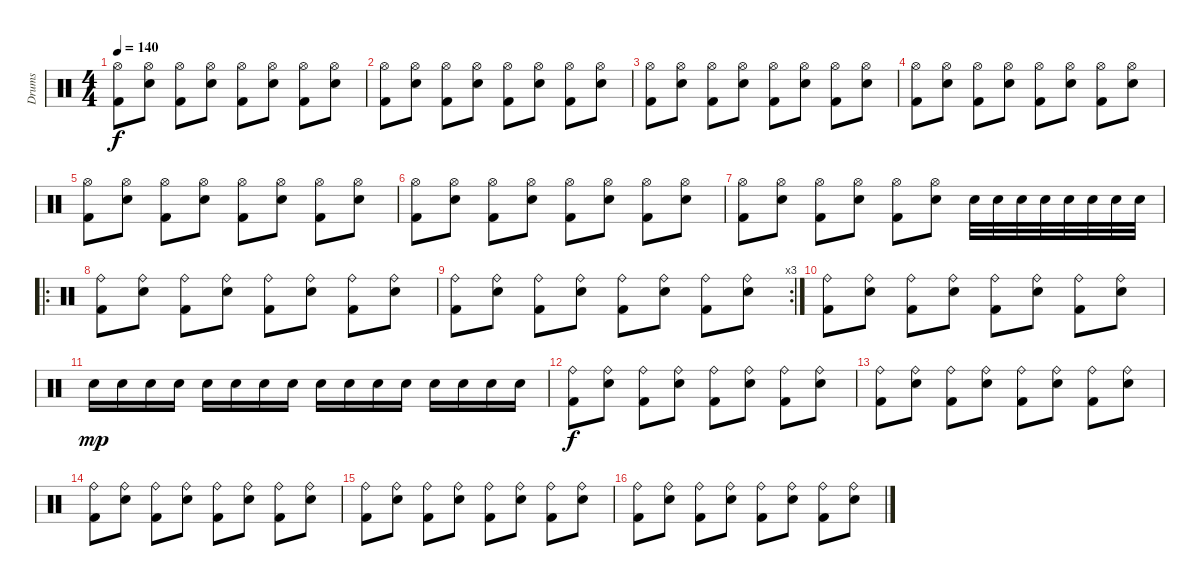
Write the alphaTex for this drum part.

\track ("Drums" "Drums") {instrument percussion}
\staff {score}
\articulation defaults
\ts (4 4)
\tempo 140
\clef neutral
\ks c
("Hi-Hat (open)" "Kick (hit) 2").8{dy f} ("Hi-Hat (open)" "Electric Snare (hit)").8 ("Hi-Hat (open)" "Kick (hit) 2").8 ("Hi-Hat (open)" "Electric Snare (hit)").8 ("Hi-Hat (open)" "Kick (hit) 2").8 ("Hi-Hat (open)" "Electric Snare (hit)").8 ("Hi-Hat (open)" "Kick (hit) 2").8 ("Hi-Hat (open)" "Electric Snare (hit)").8 |
("Hi-Hat (open)" "Kick (hit) 2").8 ("Hi-Hat (open)" "Electric Snare (hit)").8 ("Hi-Hat (open)" "Kick (hit) 2").8 ("Hi-Hat (open)" "Electric Snare (hit)").8 ("Hi-Hat (open)" "Kick (hit) 2").8 ("Hi-Hat (open)" "Electric Snare (hit)").8 ("Hi-Hat (open)" "Kick (hit) 2").8 ("Hi-Hat (open)" "Electric Snare (hit)").8 |
("Hi-Hat (open)" "Kick (hit) 2").8 ("Hi-Hat (open)" "Electric Snare (hit)").8 ("Hi-Hat (open)" "Kick (hit) 2").8 ("Hi-Hat (open)" "Electric Snare (hit)").8 ("Hi-Hat (open)" "Kick (hit) 2").8 ("Hi-Hat (open)" "Electric Snare (hit)").8 ("Hi-Hat (open)" "Kick (hit) 2").8 ("Hi-Hat (open)" "Electric Snare (hit)").8 |
("Hi-Hat (open)" "Kick (hit) 2").8 ("Hi-Hat (open)" "Electric Snare (hit)").8 ("Hi-Hat (open)" "Kick (hit) 2").8 ("Hi-Hat (open)" "Electric Snare (hit)").8 ("Hi-Hat (open)" "Kick (hit) 2").8 ("Hi-Hat (open)" "Electric Snare (hit)").8 ("Hi-Hat (open)" "Kick (hit) 2").8 ("Hi-Hat (open)" "Electric Snare (hit)").8 |
("Hi-Hat (open)" "Kick (hit) 2").8 ("Hi-Hat (open)" "Electric Snare (hit)").8 ("Hi-Hat (open)" "Kick (hit) 2").8 ("Hi-Hat (open)" "Electric Snare (hit)").8 ("Hi-Hat (open)" "Kick (hit) 2").8 ("Hi-Hat (open)" "Electric Snare (hit)").8 ("Hi-Hat (open)" "Kick (hit) 2").8 ("Hi-Hat (open)" "Electric Snare (hit)").8 |
("Hi-Hat (open)" "Kick (hit) 2").8 ("Hi-Hat (open)" "Electric Snare (hit)").8 ("Hi-Hat (open)" "Kick (hit) 2").8 ("Hi-Hat (open)" "Electric Snare (hit)").8 ("Hi-Hat (open)" "Kick (hit) 2").8 ("Hi-Hat (open)" "Electric Snare (hit)").8 ("Hi-Hat (open)" "Kick (hit) 2").8 ("Hi-Hat (open)" "Electric Snare (hit)").8 |
("Hi-Hat (open)" "Kick (hit) 2").8 ("Hi-Hat (open)" "Electric Snare (hit)").8 ("Hi-Hat (open)" "Kick (hit) 2").8 ("Hi-Hat (open)" "Electric Snare (hit)").8 ("Hi-Hat (open)" "Kick (hit) 2").8 ("Hi-Hat (open)" "Electric Snare (hit)").8 "Electric Snare (hit)".32 "Electric Snare (hit)".32 "Electric Snare (hit)".32 "Electric Snare (hit)".32 "Electric Snare (hit)".32 "Electric Snare (hit)".32 "Electric Snare (hit)".32 "Electric Snare (hit)".32 |
\ro
("Ride (bell)" "Kick (hit) 2").8 ("Ride (bell)" "Electric Snare (hit)").8 ("Ride (bell)" "Kick (hit) 2").8 ("Ride (bell)" "Electric Snare (hit)").8 ("Ride (bell)" "Kick (hit) 2").8 ("Ride (bell)" "Electric Snare (hit)").8 ("Ride (bell)" "Kick (hit) 2").8 ("Ride (bell)" "Electric Snare (hit)").8 |
\rc 3
("Ride (bell)" "Kick (hit) 2").8 ("Ride (bell)" "Electric Snare (hit)").8 ("Ride (bell)" "Kick (hit) 2").8 ("Ride (bell)" "Electric Snare (hit)").8 ("Ride (bell)" "Kick (hit) 2").8 ("Ride (bell)" "Electric Snare (hit)").8 ("Ride (bell)" "Kick (hit) 2").8 ("Ride (bell)" "Electric Snare (hit)").8 |
("Ride (bell)" "Kick (hit) 2").8 ("Ride (bell)" "Electric Snare (hit)").8 ("Ride (bell)" "Kick (hit) 2").8 ("Ride (bell)" "Electric Snare (hit)").8 ("Ride (bell)" "Kick (hit) 2").8 ("Ride (bell)" "Electric Snare (hit)").8 ("Ride (bell)" "Kick (hit) 2").8 ("Ride (bell)" "Electric Snare (hit)").8 |
"Electric Snare (hit)".16{dy mp} "Electric Snare (hit)".16 "Electric Snare (hit)".16 "Electric Snare (hit)".16 "Electric Snare (hit)".16 "Electric Snare (hit)".16 "Electric Snare (hit)".16 "Electric Snare (hit)".16 "Electric Snare (hit)".16 "Electric Snare (hit)".16 "Electric Snare (hit)".16 "Electric Snare (hit)".16 "Electric Snare (hit)".16 "Electric Snare (hit)".16 "Electric Snare (hit)".16 "Electric Snare (hit)".16 |
("Ride (bell)" "Kick (hit) 2").8{dy f} ("Ride (bell)" "Electric Snare (hit)").8 ("Ride (bell)" "Kick (hit) 2").8 ("Ride (bell)" "Electric Snare (hit)").8 ("Ride (bell)" "Kick (hit) 2").8 ("Ride (bell)" "Electric Snare (hit)").8 ("Ride (bell)" "Kick (hit) 2").8 ("Ride (bell)" "Electric Snare (hit)").8 |
("Ride (bell)" "Kick (hit) 2").8 ("Ride (bell)" "Electric Snare (hit)").8 ("Ride (bell)" "Kick (hit) 2").8 ("Ride (bell)" "Electric Snare (hit)").8 ("Ride (bell)" "Kick (hit) 2").8 ("Ride (bell)" "Electric Snare (hit)").8 ("Ride (bell)" "Kick (hit) 2").8 ("Ride (bell)" "Electric Snare (hit)").8 |
("Ride (bell)" "Kick (hit) 2").8 ("Ride (bell)" "Electric Snare (hit)").8 ("Ride (bell)" "Kick (hit) 2").8 ("Ride (bell)" "Electric Snare (hit)").8 ("Ride (bell)" "Kick (hit) 2").8 ("Ride (bell)" "Electric Snare (hit)").8 ("Ride (bell)" "Kick (hit) 2").8 ("Ride (bell)" "Electric Snare (hit)").8 |
("Ride (bell)" "Kick (hit) 2").8 ("Ride (bell)" "Electric Snare (hit)").8 ("Ride (bell)" "Kick (hit) 2").8 ("Ride (bell)" "Electric Snare (hit)").8 ("Ride (bell)" "Kick (hit) 2").8 ("Ride (bell)" "Electric Snare (hit)").8 ("Ride (bell)" "Kick (hit) 2").8 ("Ride (bell)" "Electric Snare (hit)").8 |
("Ride (bell)" "Kick (hit) 2").8 ("Ride (bell)" "Electric Snare (hit)").8 ("Ride (bell)" "Kick (hit) 2").8 ("Ride (bell)" "Electric Snare (hit)").8 ("Ride (bell)" "Kick (hit) 2").8 ("Ride (bell)" "Electric Snare (hit)").8 ("Ride (bell)" "Kick (hit) 2").8 ("Ride (bell)" "Electric Snare (hit)").8
